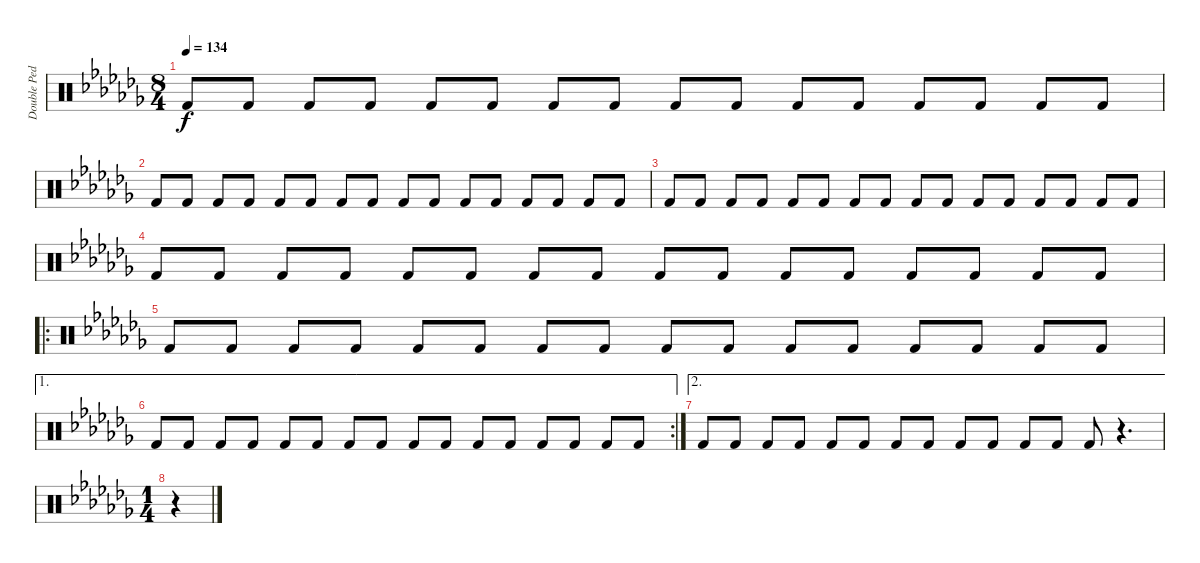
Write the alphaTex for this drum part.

\track ("Double Pedal" "Double Ped") {instrument percussion}
\staff
\articulation defaults
\ts (8 4)
\tempo 134
\clef neutral
\ks cb "Kick (hit) 2".8{dy f} "Kick (hit) 2".8 "Kick (hit) 2".8 "Kick (hit) 2".8 "Kick (hit) 2".8 "Kick (hit) 2".8 "Kick (hit) 2".8 "Kick (hit) 2".8 "Kick (hit) 2".8 "Kick (hit) 2".8 "Kick (hit) 2".8 "Kick (hit) 2".8 "Kick (hit) 2".8 "Kick (hit) 2".8 "Kick (hit) 2".8 "Kick (hit) 2".8
|
"Kick (hit) 2".8 "Kick (hit) 2".8 "Kick (hit) 2".8 "Kick (hit) 2".8 "Kick (hit) 2".8 "Kick (hit) 2".8 "Kick (hit) 2".8 "Kick (hit) 2".8 "Kick (hit) 2".8 "Kick (hit) 2".8 "Kick (hit) 2".8 "Kick (hit) 2".8 "Kick (hit) 2".8 "Kick (hit) 2".8 "Kick (hit) 2".8 "Kick (hit) 2".8 |
"Kick (hit) 2".8 "Kick (hit) 2".8 "Kick (hit) 2".8 "Kick (hit) 2".8 "Kick (hit) 2".8 "Kick (hit) 2".8 "Kick (hit) 2".8 "Kick (hit) 2".8 "Kick (hit) 2".8 "Kick (hit) 2".8 "Kick (hit) 2".8 "Kick (hit) 2".8 "Kick (hit) 2".8 "Kick (hit) 2".8 "Kick (hit) 2".8 "Kick (hit) 2".8 |
"Kick (hit) 2".8 "Kick (hit) 2".8 "Kick (hit) 2".8 "Kick (hit) 2".8 "Kick (hit) 2".8 "Kick (hit) 2".8 "Kick (hit) 2".8 "Kick (hit) 2".8 "Kick (hit) 2".8 "Kick (hit) 2".8 "Kick (hit) 2".8 "Kick (hit) 2".8 "Kick (hit) 2".8 "Kick (hit) 2".8 "Kick (hit) 2".8 "Kick (hit) 2".8 |
\ro "Kick (hit) 2".8 "Kick (hit) 2".8 "Kick (hit) 2".8 "Kick (hit) 2".8 "Kick (hit) 2".8 "Kick (hit) 2".8 "Kick (hit) 2".8 "Kick (hit) 2".8 "Kick (hit) 2".8 "Kick (hit) 2".8 "Kick (hit) 2".8 "Kick (hit) 2".8 "Kick (hit) 2".8 "Kick (hit) 2".8 "Kick (hit) 2".8 "Kick (hit) 2".8
|
\ae 1
\rc 2 "Kick (hit) 2".8 "Kick (hit) 2".8 "Kick (hit) 2".8 "Kick (hit) 2".8 "Kick (hit) 2".8 "Kick (hit) 2".8 "Kick (hit) 2".8 "Kick (hit) 2".8 "Kick (hit) 2".8 "Kick (hit) 2".8 "Kick (hit) 2".8 "Kick (hit) 2".8 "Kick (hit) 2".8 "Kick (hit) 2".8 "Kick (hit) 2".8 "Kick (hit) 2".8
|
\ae 2 "Kick (hit) 2".8 "Kick (hit) 2".8 "Kick (hit) 2".8 "Kick (hit) 2".8 "Kick (hit) 2".8 "Kick (hit) 2".8 "Kick (hit) 2".8 "Kick (hit) 2".8 "Kick (hit) 2".8 "Kick (hit) 2".8 "Kick (hit) 2".8 "Kick (hit) 2".8 "Kick (hit) 2".8
r.4{d} |
\ts (1 4)
r.4
